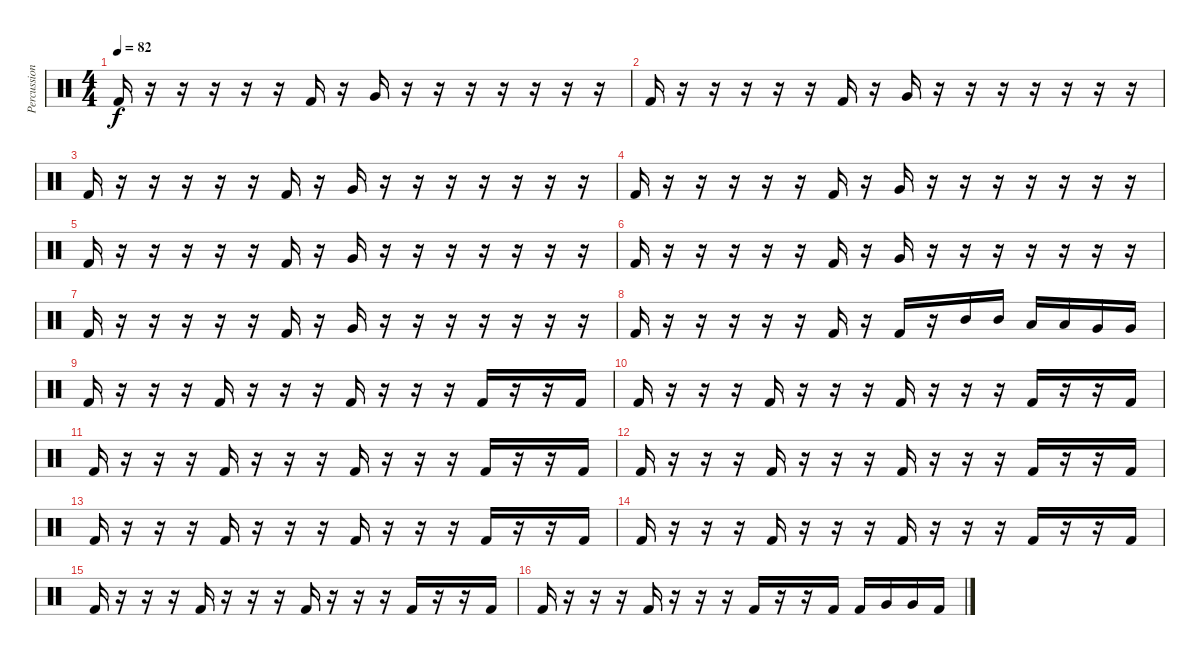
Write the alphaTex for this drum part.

\track ("Percussion" "Percussion") {instrument percussion}
\staff {score}
\articulation defaults
\ts (4 4)
\tempo 82
\clef neutral
\ks c "Kick (hit) 2".16{dy f}
r.16 r.16 r.16 r.16 r.16 "Kick (hit) 2".16 r.16 "Very Low Tom (hit)".16 r.16 r.16 r.16 r.16 r.16 r.16 r.16 |
"Kick (hit) 2".16 r.16 r.16 r.16 r.16 r.16 "Kick (hit) 2".16 r.16 "Very Low Tom (hit)".16 r.16 r.16 r.16 r.16 r.16 r.16 r.16 |
"Kick (hit) 2".16 r.16 r.16 r.16 r.16 r.16 "Kick (hit) 2".16 r.16 "Very Low Tom (hit)".16 r.16 r.16 r.16 r.16 r.16 r.16 r.16 |
"Kick (hit) 2".16 r.16 r.16 r.16 r.16 r.16 "Kick (hit) 2".16 r.16 "Very Low Tom (hit)".16 r.16 r.16 r.16 r.16 r.16 r.16 r.16 |
"Kick (hit) 2".16 r.16 r.16 r.16 r.16 r.16 "Kick (hit) 2".16 r.16 "Very Low Tom (hit)".16 r.16 r.16 r.16 r.16 r.16 r.16 r.16 |
"Kick (hit) 2".16 r.16 r.16 r.16 r.16 r.16 "Kick (hit) 2".16 r.16 "Very Low Tom (hit)".16 r.16 r.16 r.16 r.16 r.16 r.16 r.16 |
"Kick (hit) 2".16 r.16 r.16 r.16 r.16 r.16 "Kick (hit) 2".16 r.16 "Very Low Tom (hit)".16 r.16 r.16 r.16 r.16 r.16 r.16 r.16 |
"Kick (hit) 2".16 r.16 r.16 r.16 r.16 r.16 "Kick (hit) 2".16 r.16 "Kick (hit) 2".16 r.16 "Mid Tom (hit)".16 "Mid Tom (hit)".16 "Low Tom (hit)".16 "Low Tom (hit)".16 "Very Low Tom (hit)".16 "Very Low Tom (hit)".16 |
"Kick (hit) 2".16 r.16 r.16 r.16 "Kick (hit) 2".16 r.16 r.16 r.16 "Kick (hit) 2".16 r.16 r.16 r.16 "Kick (hit) 2".16 r.16 r.16 "Kick (hit) 2".16 |
"Kick (hit) 2".16 r.16 r.16 r.16 "Kick (hit) 2".16 r.16 r.16 r.16 "Kick (hit) 2".16 r.16 r.16 r.16 "Kick (hit) 2".16 r.16 r.16 "Kick (hit) 2".16 |
"Kick (hit) 2".16 r.16 r.16 r.16 "Kick (hit) 2".16 r.16 r.16 r.16 "Kick (hit) 2".16 r.16 r.16 r.16 "Kick (hit) 2".16 r.16 r.16 "Kick (hit) 2".16 |
"Kick (hit) 2".16 r.16 r.16 r.16 "Kick (hit) 2".16 r.16 r.16 r.16 "Kick (hit) 2".16 r.16 r.16 r.16 "Kick (hit) 2".16 r.16 r.16 "Kick (hit) 2".16 |
"Kick (hit) 2".16 r.16 r.16 r.16 "Kick (hit) 2".16 r.16 r.16 r.16 "Kick (hit) 2".16 r.16 r.16 r.16 "Kick (hit) 2".16 r.16 r.16 "Kick (hit) 2".16 |
"Kick (hit) 2".16 r.16 r.16 r.16 "Kick (hit) 2".16 r.16 r.16 r.16 "Kick (hit) 2".16 r.16 r.16 r.16 "Kick (hit) 2".16 r.16 r.16 "Kick (hit) 2".16 |
"Kick (hit) 2".16 r.16 r.16 r.16 "Kick (hit) 2".16 r.16 r.16 r.16 "Kick (hit) 2".16 r.16 r.16 r.16 "Kick (hit) 2".16 r.16 r.16 "Kick (hit) 2".16 |
"Kick (hit) 2".16 r.16 r.16 r.16 "Kick (hit) 2".16 r.16 r.16 r.16 "Kick (hit) 2".16 r.16 r.16 "Kick (hit) 2".16 "Kick (hit) 2".16 "Very Low Tom (hit)".16 "Very Low Tom (hit)".16 "Kick (hit) 2".16
